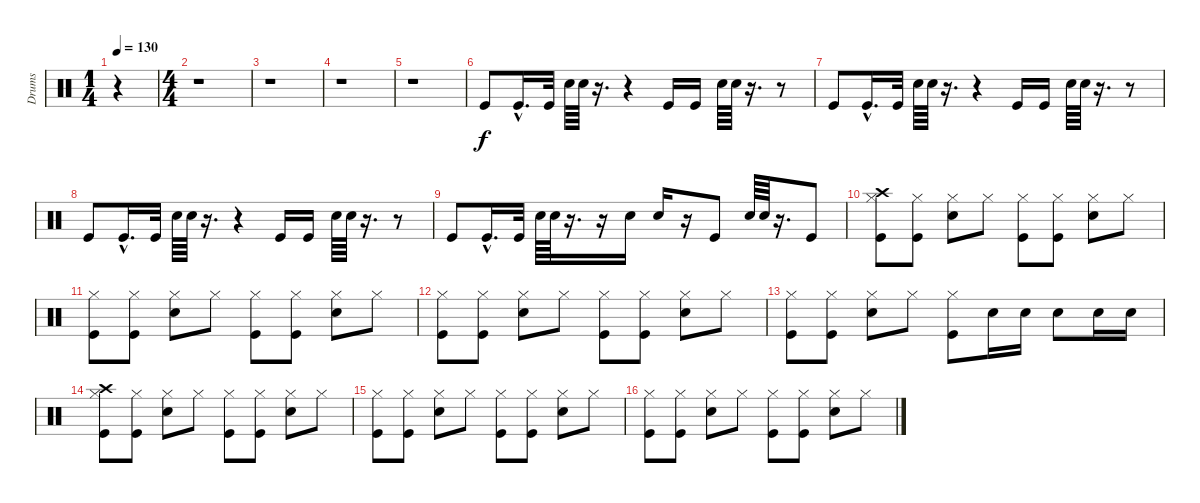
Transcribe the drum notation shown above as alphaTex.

\track ("Drums" "Drums") {instrument percussion}
\staff {score}
\articulation defaults
\ts (1 4)
\tempo 130
\clef neutral
\ks c
r.4{dy f} |
\ts (4 4)
r.1 |
r.1 |
r.1 |
r.1 |
"Kick (hit)".8 "Kick (hit)"{hac}.16{d} "Kick (hit)".32 "Snare (hit) 2".64 "Snare (hit) 2".64 r.16{d} r.4 "Kick (hit)".16 "Kick (hit)".16 "Snare (hit) 2".64 "Snare (hit) 2".64 r.16{d} r.8 |
"Kick (hit)".8 "Kick (hit)"{hac}.16{d} "Kick (hit)".32 "Snare (hit) 2".64 "Snare (hit) 2".64 r.16{d} r.4 "Kick (hit)".16 "Kick (hit)".16 "Snare (hit) 2".64 "Snare (hit) 2".64 r.16{d} r.8 |
"Kick (hit)".8 "Kick (hit)"{hac}.16{d} "Kick (hit)".32 "Snare (hit) 2".64 "Snare (hit) 2".64 r.16{d} r.4 "Kick (hit)".16 "Kick (hit)".16 "Snare (hit) 2".64 "Snare (hit) 2".64 r.16{d} r.8 |
"Kick (hit)".8 "Kick (hit)"{hac}.16{d} "Kick (hit)".32 "Snare (hit) 2".64 "Snare (hit) 2".64 r.16{d} r.16 "Snare (hit) 2".16 "Snare (hit) 2".16 r.16 "Kick (hit)".8 "Snare (hit) 2".64 "Snare (hit) 2".64 r.16{d} "Kick (hit)".8 |
("Hi-Hat (closed)" "Kick (hit)" "Crash high (hit)").8 ("Hi-Hat (closed)" "Kick (hit)").8 ("Hi-Hat (closed)" "Snare (hit) 2").8 "Hi-Hat (closed)".8 ("Hi-Hat (closed)" "Kick (hit)").8 ("Hi-Hat (closed)" "Kick (hit)").8 ("Hi-Hat (closed)" "Snare (hit) 2").8 "Hi-Hat (closed)".8 |
("Hi-Hat (closed)" "Kick (hit)").8 ("Hi-Hat (closed)" "Kick (hit)").8 ("Hi-Hat (closed)" "Snare (hit) 2").8 "Hi-Hat (closed)".8 ("Hi-Hat (closed)" "Kick (hit)").8 ("Hi-Hat (closed)" "Kick (hit)").8 ("Hi-Hat (closed)" "Snare (hit) 2").8 "Hi-Hat (closed)".8 |
("Hi-Hat (closed)" "Kick (hit)").8 ("Hi-Hat (closed)" "Kick (hit)").8 ("Hi-Hat (closed)" "Snare (hit) 2").8 "Hi-Hat (closed)".8 ("Hi-Hat (closed)" "Kick (hit)").8 ("Hi-Hat (closed)" "Kick (hit)").8 ("Hi-Hat (closed)" "Snare (hit) 2").8 "Hi-Hat (closed)".8 |
("Hi-Hat (closed)" "Kick (hit)").8 ("Hi-Hat (closed)" "Kick (hit)").8 ("Hi-Hat (closed)" "Snare (hit) 2").8 "Hi-Hat (closed)".8 ("Hi-Hat (closed)" "Kick (hit)").8 "Snare (hit) 2".16 "Snare (hit) 2".16 "Snare (hit) 2".8 "Snare (hit) 2".16 "Snare (hit) 2".16 |
("Hi-Hat (closed)" "Kick (hit)" "Crash high (hit)").8 ("Hi-Hat (closed)" "Kick (hit)").8 ("Hi-Hat (closed)" "Snare (hit) 2").8 "Hi-Hat (closed)".8 ("Hi-Hat (closed)" "Kick (hit)").8 ("Hi-Hat (closed)" "Kick (hit)").8 ("Hi-Hat (closed)" "Snare (hit) 2").8 "Hi-Hat (closed)".8 |
("Hi-Hat (closed)" "Kick (hit)").8 ("Hi-Hat (closed)" "Kick (hit)").8 ("Hi-Hat (closed)" "Snare (hit) 2").8 "Hi-Hat (closed)".8 ("Hi-Hat (closed)" "Kick (hit)").8 ("Hi-Hat (closed)" "Kick (hit)").8 ("Hi-Hat (closed)" "Snare (hit) 2").8 "Hi-Hat (closed)".8 |
("Hi-Hat (closed)" "Kick (hit)").8 ("Hi-Hat (closed)" "Kick (hit)").8 ("Hi-Hat (closed)" "Snare (hit) 2").8 "Hi-Hat (closed)".8 ("Hi-Hat (closed)" "Kick (hit)").8 ("Hi-Hat (closed)" "Kick (hit)").8 ("Hi-Hat (closed)" "Snare (hit) 2").8 "Hi-Hat (closed)".8
